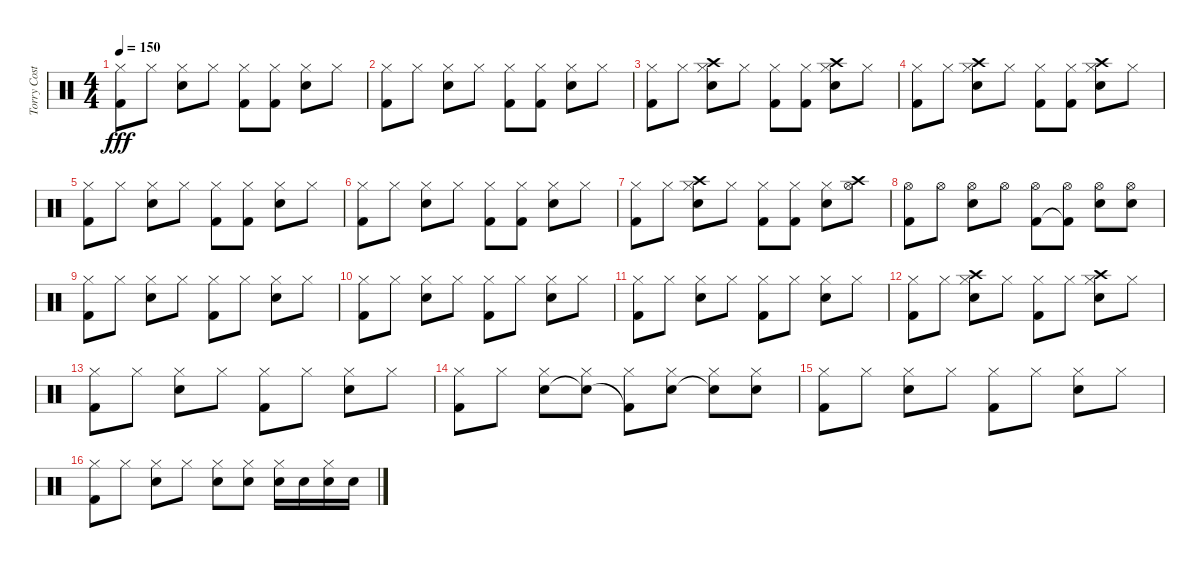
\track ("Torry Costellano" "Torry Cost") {instrument percussion}
\staff {score}
\articulation defaults
\ts (4 4)
\tempo 150
\clef neutral
\ks c
("Hi-Hat (closed)" "Kick (hit) 2").8{dy fff} "Hi-Hat (closed)".8 ("Hi-Hat (closed)" "Electric Snare (hit)").8 "Hi-Hat (closed)".8 ("Hi-Hat (closed)" "Kick (hit) 2").8 ("Hi-Hat (closed)" "Kick (hit) 2").8 ("Hi-Hat (closed)" "Electric Snare (hit)").8 "Hi-Hat (closed)".8 |
("Hi-Hat (closed)" "Kick (hit) 2").8 "Hi-Hat (closed)".8 ("Hi-Hat (closed)" "Electric Snare (hit)").8 "Hi-Hat (closed)".8 ("Hi-Hat (closed)" "Kick (hit) 2").8 ("Hi-Hat (closed)" "Kick (hit) 2").8 ("Hi-Hat (closed)" "Electric Snare (hit)").8 "Hi-Hat (closed)".8 |
("Hi-Hat (closed)" "Kick (hit) 2").8 "Hi-Hat (closed)".8 ("Crash high (hit)" "Hi-Hat (closed)" "Electric Snare (hit)").8 "Hi-Hat (closed)".8 ("Hi-Hat (closed)" "Kick (hit) 2").8 ("Hi-Hat (closed)" "Kick (hit) 2").8 ("Crash high (hit)" "Hi-Hat (closed)" "Electric Snare (hit)").8 "Hi-Hat (closed)".8 |
("Hi-Hat (closed)" "Kick (hit) 2").8 "Hi-Hat (closed)".8 ("Crash high (hit)" "Hi-Hat (closed)" "Electric Snare (hit)").8 "Hi-Hat (closed)".8 ("Hi-Hat (closed)" "Kick (hit) 2").8 ("Hi-Hat (closed)" "Kick (hit) 2").8 ("Crash high (hit)" "Hi-Hat (closed)" "Electric Snare (hit)").8 "Hi-Hat (closed)".8 |
("Hi-Hat (closed)" "Kick (hit) 2").8 "Hi-Hat (closed)".8 ("Hi-Hat (closed)" "Electric Snare (hit)").8 "Hi-Hat (closed)".8 ("Hi-Hat (closed)" "Kick (hit) 2").8 ("Hi-Hat (closed)" "Kick (hit) 2").8 ("Hi-Hat (closed)" "Electric Snare (hit)").8 "Hi-Hat (closed)".8 |
("Hi-Hat (closed)" "Kick (hit) 2").8 "Hi-Hat (closed)".8 ("Hi-Hat (closed)" "Electric Snare (hit)").8 "Hi-Hat (closed)".8 ("Hi-Hat (closed)" "Kick (hit) 2").8 ("Hi-Hat (closed)" "Kick (hit) 2").8 ("Hi-Hat (closed)" "Electric Snare (hit)").8 "Hi-Hat (closed)".8 |
("Hi-Hat (closed)" "Kick (hit) 2").8 "Hi-Hat (closed)".8 ("Crash high (hit)" "Hi-Hat (closed)" "Electric Snare (hit)").8 "Hi-Hat (closed)".8 ("Hi-Hat (closed)" "Kick (hit) 2").8 ("Hi-Hat (closed)" "Kick (hit) 2").8 ("Hi-Hat (closed)" "Electric Snare (hit)").8 ("Crash high (hit)" "Hi-Hat (open)").8 |
("Hi-Hat (open)" "Kick (hit) 2").8 "Hi-Hat (open)".8 ("Hi-Hat (open)" "Electric Snare (hit)").8 "Hi-Hat (open)".8 ("Hi-Hat (open)" "Kick (hit) 2").8 ("Hi-Hat (open)" "Kick (hit) 2"{t}).8 ("Hi-Hat (open)" "Electric Snare (hit)").8 ("Hi-Hat (open)" "Electric Snare (hit)").8 |
("Hi-Hat (closed)" "Kick (hit) 2").8 "Hi-Hat (closed)".8 ("Hi-Hat (closed)" "Electric Snare (hit)").8 "Hi-Hat (closed)".8 ("Hi-Hat (closed)" "Kick (hit) 2").8 "Hi-Hat (closed)".8 ("Hi-Hat (closed)" "Electric Snare (hit)").8 "Hi-Hat (closed)".8 |
("Hi-Hat (closed)" "Kick (hit) 2").8 "Hi-Hat (closed)".8 ("Hi-Hat (closed)" "Electric Snare (hit)").8 "Hi-Hat (closed)".8 ("Hi-Hat (closed)" "Kick (hit) 2").8 "Hi-Hat (closed)".8 ("Hi-Hat (closed)" "Electric Snare (hit)").8 "Hi-Hat (closed)".8 |
("Hi-Hat (closed)" "Kick (hit) 2").8 "Hi-Hat (closed)".8 ("Hi-Hat (closed)" "Electric Snare (hit)").8 "Hi-Hat (closed)".8 ("Hi-Hat (closed)" "Kick (hit) 2").8 "Hi-Hat (closed)".8 ("Hi-Hat (closed)" "Electric Snare (hit)").8 "Hi-Hat (closed)".8 |
("Hi-Hat (closed)" "Kick (hit) 2").8 "Hi-Hat (closed)".8 ("Crash high (hit)" "Hi-Hat (closed)" "Electric Snare (hit)").8 "Hi-Hat (closed)".8 ("Hi-Hat (closed)" "Kick (hit) 2").8 "Hi-Hat (closed)".8 ("Crash high (hit)" "Hi-Hat (closed)" "Electric Snare (hit)").8 "Hi-Hat (closed)".8 |
("Hi-Hat (closed)" "Kick (hit) 2").8 "Hi-Hat (closed)".8 ("Hi-Hat (closed)" "Electric Snare (hit)").8 "Hi-Hat (closed)".8 ("Hi-Hat (closed)" "Kick (hit) 2").8 "Hi-Hat (closed)".8 ("Hi-Hat (closed)" "Electric Snare (hit)").8 "Hi-Hat (closed)".8 |
("Hi-Hat (closed)" "Kick (hit) 2").8 "Hi-Hat (closed)".8 ("Hi-Hat (closed)" "Electric Snare (hit)").8 ("Hi-Hat (closed)" "Electric Snare (hit)"{t}).8 ("Hi-Hat (closed)" "Kick (hit) 2"{t}).8 ("Hi-Hat (closed)" "Electric Snare (hit)").8 ("Hi-Hat (closed)" "Electric Snare (hit)"{t}).8 ("Hi-Hat (closed)" "Electric Snare (hit)").8 |
("Hi-Hat (closed)" "Kick (hit) 2").8 "Hi-Hat (closed)".8 ("Hi-Hat (closed)" "Electric Snare (hit)").8 "Hi-Hat (closed)".8 ("Hi-Hat (closed)" "Kick (hit) 2").8 "Hi-Hat (closed)".8 ("Hi-Hat (closed)" "Electric Snare (hit)").8 "Hi-Hat (closed)".8 |
("Hi-Hat (closed)" "Kick (hit) 2").8 "Hi-Hat (closed)".8 ("Hi-Hat (closed)" "Electric Snare (hit)").8 "Hi-Hat (closed)".8 ("Hi-Hat (closed)" "Electric Snare (hit)").8 ("Hi-Hat (closed)" "Electric Snare (hit)").8 ("Hi-Hat (closed)" "Electric Snare (hit)").16 "Electric Snare (hit)".16 ("Hi-Hat (closed)" "Electric Snare (hit)").16 "Electric Snare (hit)".16
